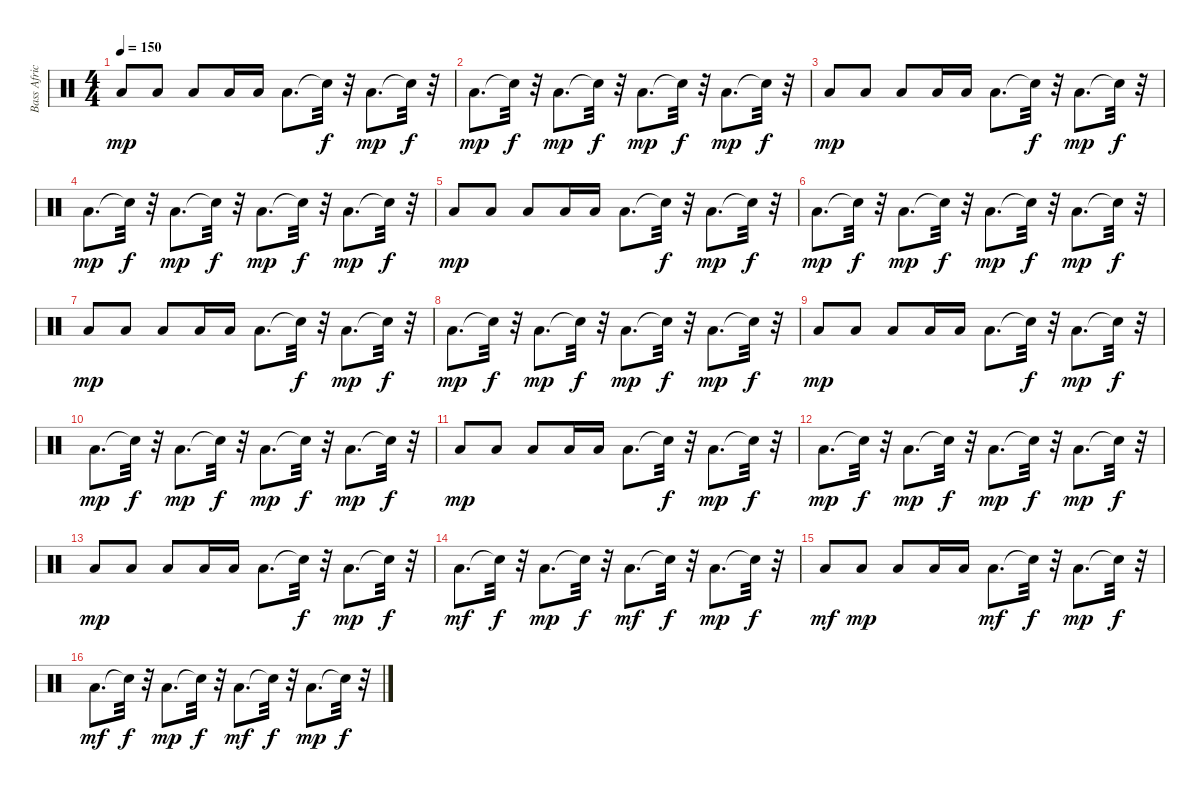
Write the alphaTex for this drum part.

\track ("Bass African Drum" "Bass Afric") {instrument percussion}
\staff {score}
\articulation defaults
\ts (4 4)
\tempo 150
\clef neutral
\ks c "Low Floor Tom (hit)".8{dy mp} "Low Floor Tom (hit)".8 "Low Floor Tom (hit)".8 "Low Floor Tom (hit)".16 "Low Floor Tom (hit)".16 "Low Floor Tom (hit)".8{d} "Snare (hit)"{t}.32{dy f}
r.32 "Low Floor Tom (hit)".8{d dy mp} "Snare (hit)"{t}.32{dy f} r.32 |
"Low Floor Tom (hit)".8{d dy mp} "Snare (hit)"{t}.32{dy f} r.32 "Low Floor Tom (hit)".8{d dy mp} "Snare (hit)"{t}.32{dy f} r.32 "Low Floor Tom (hit)".8{d dy mp} "Snare (hit)"{t}.32{dy f} r.32 "Low Floor Tom (hit)".8{d dy mp} "Snare (hit)"{t}.32{dy f} r.32 |
"Low Floor Tom (hit)".8{dy mp} "Low Floor Tom (hit)".8 "Low Floor Tom (hit)".8 "Low Floor Tom (hit)".16 "Low Floor Tom (hit)".16 "Low Floor Tom (hit)".8{d} "Snare (hit)"{t}.32{dy f} r.32 "Low Floor Tom (hit)".8{d dy mp} "Snare (hit)"{t}.32{dy f} r.32 |
"Low Floor Tom (hit)".8{d dy mp} "Snare (hit)"{t}.32{dy f} r.32 "Low Floor Tom (hit)".8{d dy mp} "Snare (hit)"{t}.32{dy f} r.32 "Low Floor Tom (hit)".8{d dy mp} "Snare (hit)"{t}.32{dy f} r.32 "Low Floor Tom (hit)".8{d dy mp} "Snare (hit)"{t}.32{dy f} r.32 |
"Low Floor Tom (hit)".8{dy mp} "Low Floor Tom (hit)".8 "Low Floor Tom (hit)".8 "Low Floor Tom (hit)".16 "Low Floor Tom (hit)".16 "Low Floor Tom (hit)".8{d} "Snare (hit)"{t}.32{dy f} r.32 "Low Floor Tom (hit)".8{d dy mp} "Snare (hit)"{t}.32{dy f} r.32 |
"Low Floor Tom (hit)".8{d dy mp} "Snare (hit)"{t}.32{dy f} r.32 "Low Floor Tom (hit)".8{d dy mp} "Snare (hit)"{t}.32{dy f} r.32 "Low Floor Tom (hit)".8{d dy mp} "Snare (hit)"{t}.32{dy f} r.32 "Low Floor Tom (hit)".8{d dy mp} "Snare (hit)"{t}.32{dy f} r.32 |
"Low Floor Tom (hit)".8{dy mp} "Low Floor Tom (hit)".8 "Low Floor Tom (hit)".8 "Low Floor Tom (hit)".16 "Low Floor Tom (hit)".16 "Low Floor Tom (hit)".8{d} "Snare (hit)"{t}.32{dy f} r.32 "Low Floor Tom (hit)".8{d dy mp} "Snare (hit)"{t}.32{dy f} r.32 |
"Low Floor Tom (hit)".8{d dy mp} "Snare (hit)"{t}.32{dy f} r.32 "Low Floor Tom (hit)".8{d dy mp} "Snare (hit)"{t}.32{dy f} r.32 "Low Floor Tom (hit)".8{d dy mp} "Snare (hit)"{t}.32{dy f} r.32 "Low Floor Tom (hit)".8{d dy mp} "Snare (hit)"{t}.32{dy f} r.32 |
"Low Floor Tom (hit)".8{dy mp} "Low Floor Tom (hit)".8 "Low Floor Tom (hit)".8 "Low Floor Tom (hit)".16 "Low Floor Tom (hit)".16 "Low Floor Tom (hit)".8{d} "Snare (hit)"{t}.32{dy f} r.32 "Low Floor Tom (hit)".8{d dy mp} "Snare (hit)"{t}.32{dy f} r.32 |
"Low Floor Tom (hit)".8{d dy mp} "Snare (hit)"{t}.32{dy f} r.32 "Low Floor Tom (hit)".8{d dy mp} "Snare (hit)"{t}.32{dy f} r.32 "Low Floor Tom (hit)".8{d dy mp} "Snare (hit)"{t}.32{dy f} r.32 "Low Floor Tom (hit)".8{d dy mp} "Snare (hit)"{t}.32{dy f} r.32 |
"Low Floor Tom (hit)".8{dy mp} "Low Floor Tom (hit)".8 "Low Floor Tom (hit)".8 "Low Floor Tom (hit)".16 "Low Floor Tom (hit)".16 "Low Floor Tom (hit)".8{d} "Snare (hit)"{t}.32{dy f} r.32 "Low Floor Tom (hit)".8{d dy mp} "Snare (hit)"{t}.32{dy f} r.32 |
"Low Floor Tom (hit)".8{d dy mp} "Snare (hit)"{t}.32{dy f} r.32 "Low Floor Tom (hit)".8{d dy mp} "Snare (hit)"{t}.32{dy f} r.32 "Low Floor Tom (hit)".8{d dy mp} "Snare (hit)"{t}.32{dy f} r.32 "Low Floor Tom (hit)".8{d dy mp} "Snare (hit)"{t}.32{dy f} r.32 |
"Low Floor Tom (hit)".8{dy mp} "Low Floor Tom (hit)".8 "Low Floor Tom (hit)".8 "Low Floor Tom (hit)".16 "Low Floor Tom (hit)".16 "Low Floor Tom (hit)".8{d} "Snare (hit)"{t}.32{dy f} r.32 "Low Floor Tom (hit)".8{d dy mp} "Snare (hit)"{t}.32{dy f} r.32 |
"Low Floor Tom (hit)".8{d dy mf} "Snare (hit)"{t}.32{dy f} r.32 "Low Floor Tom (hit)".8{d dy mp} "Snare (hit)"{t}.32{dy f} r.32 "Low Floor Tom (hit)".8{d dy mf} "Snare (hit)"{t}.32{dy f} r.32 "Low Floor Tom (hit)".8{d dy mp} "Snare (hit)"{t}.32{dy f} r.32 |
"Low Floor Tom (hit)".8{dy mf} "Low Floor Tom (hit)".8{dy mp} "Low Floor Tom (hit)".8 "Low Floor Tom (hit)".16 "Low Floor Tom (hit)".16 "Low Floor Tom (hit)".8{d dy mf} "Snare (hit)"{t}.32{dy f} r.32 "Low Floor Tom (hit)".8{d dy mp} "Snare (hit)"{t}.32{dy f} r.32 |
"Low Floor Tom (hit)".8{d dy mf} "Snare (hit)"{t}.32{dy f} r.32 "Low Floor Tom (hit)".8{d dy mp} "Snare (hit)"{t}.32{dy f} r.32 "Low Floor Tom (hit)".8{d dy mf} "Snare (hit)"{t}.32{dy f} r.32 "Low Floor Tom (hit)".8{d dy mp} "Snare (hit)"{t}.32{dy f} r.32
